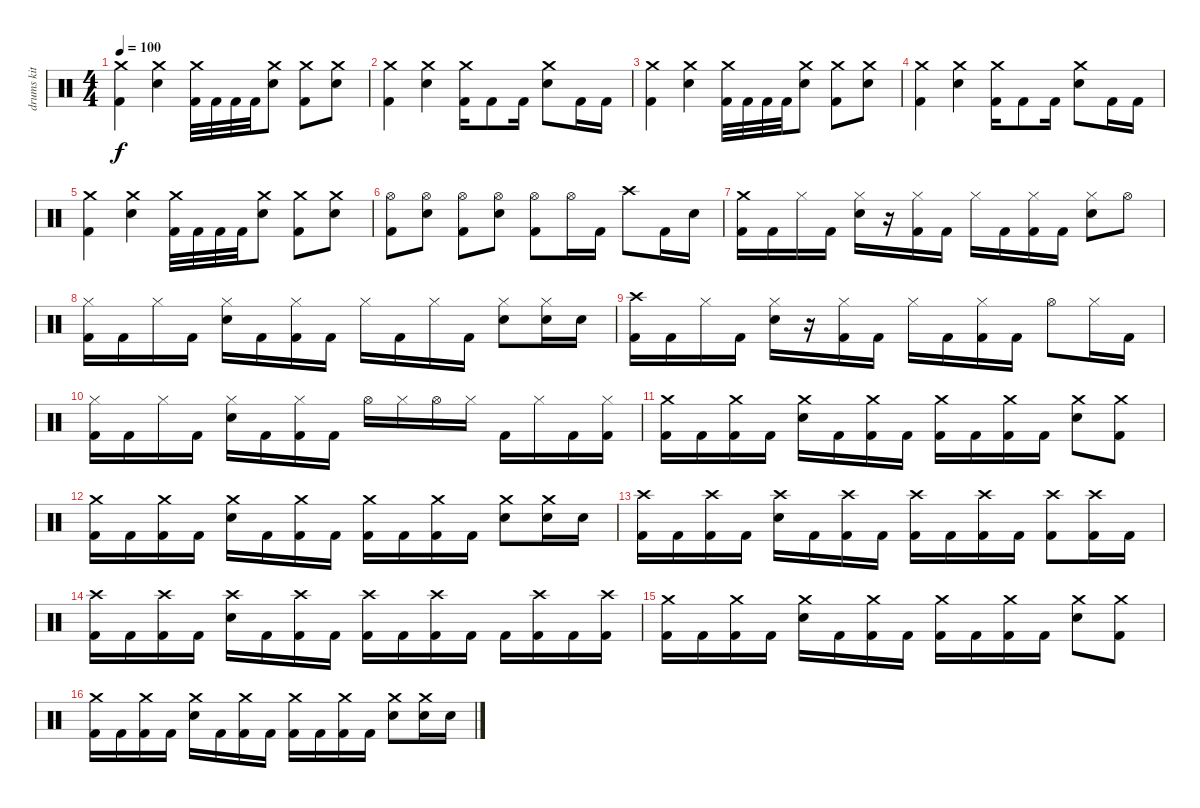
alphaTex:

\track ("drums kit" "drums kit") {instrument percussion}
\staff {score}
\articulation defaults
\ts (4 4)
\tempo 100
\clef neutral
\ks c
("Crash medium (hit)" "Kick (hit) 2").4{dy f} ("Crash medium (hit)" "Snare (hit) 2").4 ("Crash medium (hit)" "Kick (hit) 2").32 "Kick (hit) 2".32 "Kick (hit) 2".32 "Kick (hit) 2".32 ("Crash medium (hit)" "Snare (hit) 2").8 ("Crash medium (hit)" "Kick (hit) 2").8 ("Crash medium (hit)" "Snare (hit) 2").8 |
("Crash medium (hit)" "Kick (hit) 2").4 ("Crash medium (hit)" "Snare (hit) 2").4 ("Crash medium (hit)" "Kick (hit) 2").16 "Kick (hit) 2".8 "Kick (hit) 2".16 ("Crash medium (hit)" "Snare (hit) 2").8 "Kick (hit) 2".16 "Kick (hit) 2".16 |
("Crash medium (hit)" "Kick (hit) 2").4 ("Crash medium (hit)" "Snare (hit) 2").4 ("Crash medium (hit)" "Kick (hit) 2").32 "Kick (hit) 2".32 "Kick (hit) 2".32 "Kick (hit) 2".32 ("Crash medium (hit)" "Snare (hit) 2").8 ("Crash medium (hit)" "Kick (hit) 2").8 ("Crash medium (hit)" "Snare (hit) 2").8 |
("Crash medium (hit)" "Kick (hit) 2").4 ("Crash medium (hit)" "Snare (hit) 2").4 ("Crash medium (hit)" "Kick (hit) 2").16 "Kick (hit) 2".8 "Kick (hit) 2".16 ("Crash medium (hit)" "Snare (hit) 2").8 "Kick (hit) 2".16 "Kick (hit) 2".16 |
("Crash medium (hit)" "Kick (hit) 2").4 ("Crash medium (hit)" "Snare (hit) 2").4 ("Crash medium (hit)" "Kick (hit) 2").32 "Kick (hit) 2".32 "Kick (hit) 2".32 "Kick (hit) 2".32 ("Crash medium (hit)" "Snare (hit) 2").8 ("Crash medium (hit)" "Kick (hit) 2").8 ("Crash medium (hit)" "Snare (hit) 2").8 |
("Hi-Hat (open)" "Kick (hit) 2").8 ("Hi-Hat (open)" "Snare (hit) 2").8 ("Hi-Hat (open)" "Kick (hit) 2").8 ("Hi-Hat (open)" "Snare (hit) 2").8 ("Hi-Hat (open)" "Kick (hit) 2").8 "Hi-Hat (open)".16 "Kick (hit) 2".16 "Crash high (hit)".8 "Kick (hit) 2".16 "Snare (hit) 2".16 |
("Crash medium (hit)" "Kick (hit) 2").16 "Kick (hit) 2".16 "Hi-Hat (closed)".16 "Kick (hit) 2".16 ("Hi-Hat (closed)" "Snare (hit) 2").16 r.16 ("Hi-Hat (closed)" "Kick (hit) 2").16 "Kick (hit) 2".16 "Hi-Hat (closed)".16 "Kick (hit) 2".16 ("Hi-Hat (closed)" "Kick (hit) 2").16 "Kick (hit) 2".16 ("Hi-Hat (closed)" "Snare (hit) 2").8 "Hi-Hat (open)".8 |
("Hi-Hat (closed)" "Kick (hit) 2").16 "Kick (hit) 2".16 "Hi-Hat (closed)".16 "Kick (hit) 2".16 ("Hi-Hat (closed)" "Snare (hit) 2").16 "Kick (hit) 2".16 ("Hi-Hat (closed)" "Kick (hit) 2").16 "Kick (hit) 2".16 "Hi-Hat (closed)".16 "Kick (hit) 2".16 "Hi-Hat (closed)".16 "Kick (hit) 2".16 ("Hi-Hat (closed)" "Snare (hit) 2").8 ("Hi-Hat (closed)" "Snare (hit) 2").16 "Snare (hit) 2".16 |
("Crash high (hit)" "Kick (hit) 2").16 "Kick (hit) 2".16 "Hi-Hat (closed)".16 "Kick (hit) 2".16 ("Hi-Hat (closed)" "Snare (hit) 2").16 r.16 ("Hi-Hat (closed)" "Kick (hit) 2").16 "Kick (hit) 2".16 "Hi-Hat (closed)".16 "Kick (hit) 2".16 ("Hi-Hat (closed)" "Kick (hit) 2").16 "Kick (hit) 2".16 "Hi-Hat (open)".8 "Hi-Hat (closed)".16 "Kick (hit) 2".16 |
("Hi-Hat (closed)" "Kick (hit) 2").16 "Kick (hit) 2".16 "Hi-Hat (closed)".16 "Kick (hit) 2".16 ("Hi-Hat (closed)" "Snare (hit) 2").16 "Kick (hit) 2".16 ("Hi-Hat (closed)" "Kick (hit) 2").16 "Kick (hit) 2".16 "Hi-Hat (open)".16 "Hi-Hat (closed)".16 "Hi-Hat (open)".16 "Hi-Hat (closed)".16 "Kick (hit) 2".16 "Hi-Hat (closed)".16 "Kick (hit) 2".16 ("Hi-Hat (closed)" "Kick (hit) 2").16 |
("Crash medium (hit)" "Kick (hit) 2").16 "Kick (hit) 2".16 ("Crash medium (hit)" "Kick (hit) 2").16 "Kick (hit) 2".16 ("Crash medium (hit)" "Snare (hit) 2").16 "Kick (hit) 2".16 ("Crash medium (hit)" "Kick (hit) 2").16 "Kick (hit) 2".16 ("Crash medium (hit)" "Kick (hit) 2").16 "Kick (hit) 2".16 ("Crash medium (hit)" "Kick (hit) 2").16 "Kick (hit) 2".16 ("Crash medium (hit)" "Snare (hit) 2").8 ("Crash medium (hit)" "Kick (hit) 2").8 |
("Crash medium (hit)" "Kick (hit) 2").16 "Kick (hit) 2".16 ("Crash medium (hit)" "Kick (hit) 2").16 "Kick (hit) 2".16 ("Crash medium (hit)" "Snare (hit) 2").16 "Kick (hit) 2".16 ("Crash medium (hit)" "Kick (hit) 2").16 "Kick (hit) 2".16 ("Crash medium (hit)" "Kick (hit) 2").16 "Kick (hit) 2".16 ("Crash medium (hit)" "Kick (hit) 2").16 "Kick (hit) 2".16 ("Crash medium (hit)" "Snare (hit) 2").8 ("Crash medium (hit)" "Snare (hit) 2").16 "Snare (hit) 2".16 |
("Crash high (hit)" "Kick (hit) 2").16 "Kick (hit) 2".16 ("Crash high (hit)" "Kick (hit) 2").16 "Kick (hit) 2".16 ("Crash high (hit)" "Snare (hit) 2").16 "Kick (hit) 2".16 ("Crash high (hit)" "Kick (hit) 2").16 "Kick (hit) 2".16 ("Crash high (hit)" "Kick (hit) 2").16 "Kick (hit) 2".16 ("Crash high (hit)" "Kick (hit) 2").16 "Kick (hit) 2".16 ("Crash high (hit)" "Kick (hit) 2").8 ("Crash high (hit)" "Kick (hit) 2").16 "Kick (hit) 2".16 |
("Crash high (hit)" "Kick (hit) 2").16 "Kick (hit) 2".16 ("Crash high (hit)" "Kick (hit) 2").16 "Kick (hit) 2".16 ("Crash high (hit)" "Snare (hit) 2").16 "Kick (hit) 2".16 ("Crash high (hit)" "Kick (hit) 2").16 "Kick (hit) 2".16 ("Crash high (hit)" "Kick (hit) 2").16 "Kick (hit) 2".16 ("Crash high (hit)" "Kick (hit) 2").16 "Kick (hit) 2".16 "Kick (hit) 2".16 ("Crash high (hit)" "Kick (hit) 2").16 "Kick (hit) 2".16 ("Crash high (hit)" "Kick (hit) 2").16 |
("Crash medium (hit)" "Kick (hit) 2").16 "Kick (hit) 2".16 ("Crash medium (hit)" "Kick (hit) 2").16 "Kick (hit) 2".16 ("Crash medium (hit)" "Snare (hit) 2").16 "Kick (hit) 2".16 ("Crash medium (hit)" "Kick (hit) 2").16 "Kick (hit) 2".16 ("Crash medium (hit)" "Kick (hit) 2").16 "Kick (hit) 2".16 ("Crash medium (hit)" "Kick (hit) 2").16 "Kick (hit) 2".16 ("Crash medium (hit)" "Snare (hit) 2").8 ("Crash medium (hit)" "Kick (hit) 2").8 |
("Crash medium (hit)" "Kick (hit) 2").16 "Kick (hit) 2".16 ("Crash medium (hit)" "Kick (hit) 2").16 "Kick (hit) 2".16 ("Crash medium (hit)" "Snare (hit) 2").16 "Kick (hit) 2".16 ("Crash medium (hit)" "Kick (hit) 2").16 "Kick (hit) 2".16 ("Crash medium (hit)" "Kick (hit) 2").16 "Kick (hit) 2".16 ("Crash medium (hit)" "Kick (hit) 2").16 "Kick (hit) 2".16 ("Crash medium (hit)" "Snare (hit) 2").8 ("Crash medium (hit)" "Snare (hit) 2").16 "Snare (hit) 2".16
